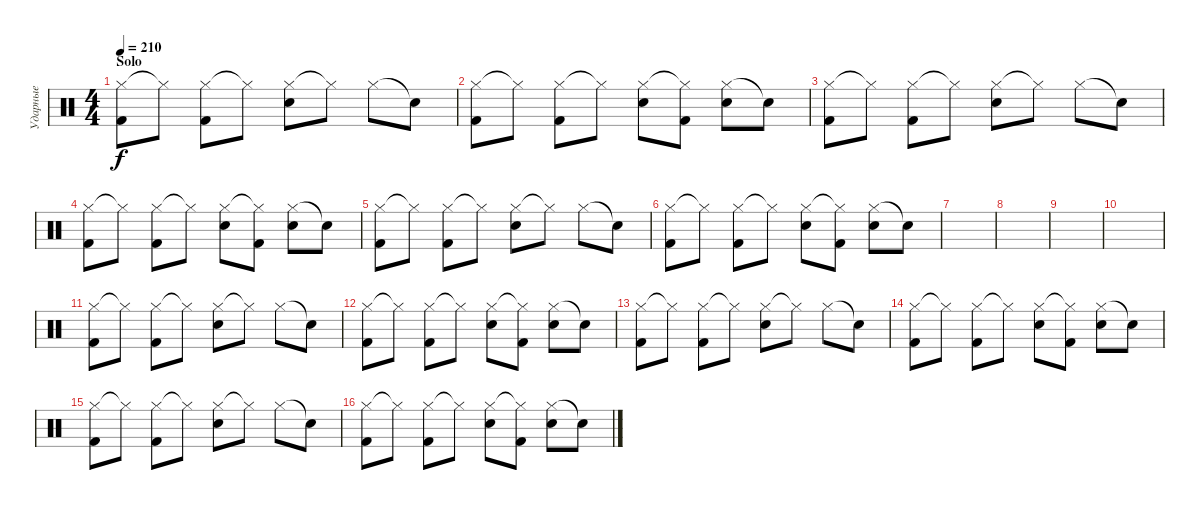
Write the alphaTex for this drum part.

\track ("Ударные" "Ударные") {instrument percussion}
\staff {score}
\articulation defaults
\ts (4 4)
\section ("" "Solo")
\tempo 210
\clef neutral
\ks c
("Hi-Hat (closed)" "Kick (hit) 2").8{dy f} "Hi-Hat (closed)"{t}.8 ("Hi-Hat (closed)" "Kick (hit) 2").8 "Hi-Hat (closed)"{t}.8 ("Hi-Hat (closed)" "Snare (hit) 2").8 "Hi-Hat (closed)"{t}.8 "Hi-Hat (closed)".8 "Snare (hit)"{t}.8 |
("Hi-Hat (closed)" "Kick (hit) 2").8 "Hi-Hat (closed)"{t}.8 ("Hi-Hat (closed)" "Kick (hit) 2").8 "Hi-Hat (closed)"{t}.8 ("Hi-Hat (closed)" "Snare (hit) 2").8 ("Hi-Hat (closed)"{t} "Kick (hit) 2").8 ("Hi-Hat (closed)" "Snare (hit) 2").8 "Snare (hit)"{t}.8 |
("Hi-Hat (closed)" "Kick (hit) 2").8 "Hi-Hat (closed)"{t}.8 ("Hi-Hat (closed)" "Kick (hit) 2").8 "Hi-Hat (closed)"{t}.8 ("Hi-Hat (closed)" "Snare (hit) 2").8 "Hi-Hat (closed)"{t}.8 "Hi-Hat (closed)".8 "Snare (hit)"{t}.8 |
("Hi-Hat (closed)" "Kick (hit) 2").8 "Hi-Hat (closed)"{t}.8 ("Hi-Hat (closed)" "Kick (hit) 2").8 "Hi-Hat (closed)"{t}.8 ("Hi-Hat (closed)" "Snare (hit) 2").8 ("Hi-Hat (closed)"{t} "Kick (hit) 2").8 ("Hi-Hat (closed)" "Snare (hit) 2").8 "Snare (hit)"{t}.8 |
("Hi-Hat (closed)" "Kick (hit) 2").8 "Hi-Hat (closed)"{t}.8 ("Hi-Hat (closed)" "Kick (hit) 2").8 "Hi-Hat (closed)"{t}.8 ("Hi-Hat (closed)" "Snare (hit) 2").8 "Hi-Hat (closed)"{t}.8 "Hi-Hat (closed)".8 "Snare (hit)"{t}.8 |
("Hi-Hat (closed)" "Kick (hit) 2").8 "Hi-Hat (closed)"{t}.8 ("Hi-Hat (closed)" "Kick (hit) 2").8 "Hi-Hat (closed)"{t}.8 ("Hi-Hat (closed)" "Snare (hit) 2").8 ("Hi-Hat (closed)"{t} "Kick (hit) 2").8 ("Hi-Hat (closed)" "Snare (hit) 2").8 "Snare (hit)"{t}.8 |
|
|
|
|
("Hi-Hat (closed)" "Kick (hit) 2").8 "Hi-Hat (closed)"{t}.8 ("Hi-Hat (closed)" "Kick (hit) 2").8 "Hi-Hat (closed)"{t}.8 ("Hi-Hat (closed)" "Snare (hit) 2").8 "Hi-Hat (closed)"{t}.8 "Hi-Hat (closed)".8 "Snare (hit)"{t}.8 |
("Hi-Hat (closed)" "Kick (hit) 2").8 "Hi-Hat (closed)"{t}.8 ("Hi-Hat (closed)" "Kick (hit) 2").8 "Hi-Hat (closed)"{t}.8 ("Hi-Hat (closed)" "Snare (hit) 2").8 ("Hi-Hat (closed)"{t} "Kick (hit) 2").8 ("Hi-Hat (closed)" "Snare (hit) 2").8 "Snare (hit)"{t}.8 |
("Hi-Hat (closed)" "Kick (hit) 2").8 "Hi-Hat (closed)"{t}.8 ("Hi-Hat (closed)" "Kick (hit) 2").8 "Hi-Hat (closed)"{t}.8 ("Hi-Hat (closed)" "Snare (hit) 2").8 "Hi-Hat (closed)"{t}.8 "Hi-Hat (closed)".8 "Snare (hit)"{t}.8 |
("Hi-Hat (closed)" "Kick (hit) 2").8 "Hi-Hat (closed)"{t}.8 ("Hi-Hat (closed)" "Kick (hit) 2").8 "Hi-Hat (closed)"{t}.8 ("Hi-Hat (closed)" "Snare (hit) 2").8 ("Hi-Hat (closed)"{t} "Kick (hit) 2").8 ("Hi-Hat (closed)" "Snare (hit) 2").8 "Snare (hit)"{t}.8 |
("Hi-Hat (closed)" "Kick (hit) 2").8 "Hi-Hat (closed)"{t}.8 ("Hi-Hat (closed)" "Kick (hit) 2").8 "Hi-Hat (closed)"{t}.8 ("Hi-Hat (closed)" "Snare (hit) 2").8 "Hi-Hat (closed)"{t}.8 "Hi-Hat (closed)".8 "Snare (hit)"{t}.8 |
("Hi-Hat (closed)" "Kick (hit) 2").8 "Hi-Hat (closed)"{t}.8 ("Hi-Hat (closed)" "Kick (hit) 2").8 "Hi-Hat (closed)"{t}.8 ("Hi-Hat (closed)" "Snare (hit) 2").8 ("Hi-Hat (closed)"{t} "Kick (hit) 2").8 ("Hi-Hat (closed)" "Snare (hit) 2").8 "Snare (hit)"{t}.8
